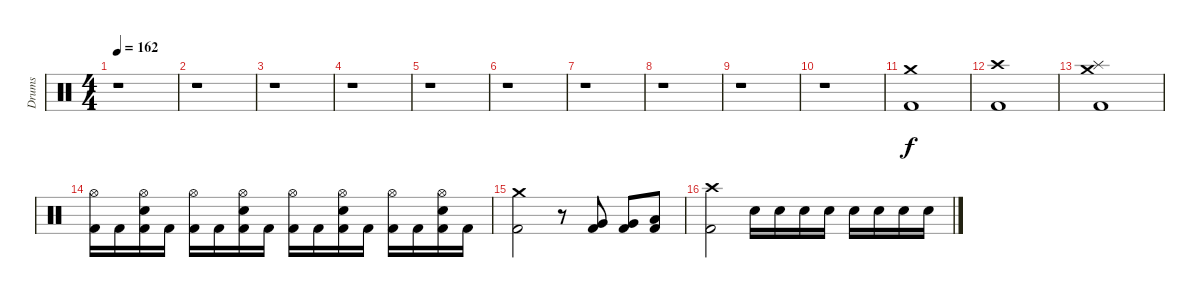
\track ("Drums" "Drums") {instrument percussion}
\staff {score}
\articulation defaults
\ts (4 4)
\tempo 162
\clef neutral
\ks c
r.1{dy f} |
r.1 |
r.1 |
r.1 |
r.1 |
r.1 |
r.1 |
r.1 |
r.1 |
r.1 |
\section ("" "")
("Kick (hit) 2" "Crash medium (hit)").1 |
("Kick (hit) 2" "Crash high (hit)").1 |
("Kick (hit) 2" "Crash medium (hit)" "Splash (hit)").1 |
("Kick (hit) 2" "Hi-Hat (open)").16 "Kick (hit) 2".16 ("Kick (hit) 2" "Snare (hit) 2" "Hi-Hat (open)").16 "Kick (hit) 2".16 ("Kick (hit) 2" "Hi-Hat (open)").16 "Kick (hit) 2".16 ("Kick (hit) 2" "Snare (hit) 2" "Hi-Hat (open)").16 "Kick (hit) 2".16 ("Kick (hit) 2" "Hi-Hat (open)").16 "Kick (hit) 2".16 ("Kick (hit) 2" "Snare (hit) 2" "Hi-Hat (open)").16 "Kick (hit) 2".16 ("Kick (hit) 2" "Hi-Hat (open)").16 "Kick (hit) 2".16 ("Kick (hit) 2" "Snare (hit) 2" "Hi-Hat (open)").16 "Kick (hit) 2".16 |
\section ("" "")
("Kick (hit) 2" "Crash medium (hit)").2 r.8 ("Kick (hit) 2" "Very Low Tom (hit)").8 ("Kick (hit) 2" "Very Low Tom (hit)").8 ("Kick (hit) 2" "Low Floor Tom (hit)").8 |
("Kick (hit) 2" "Crash high (hit)").2 "Snare (hit) 2".16 "Snare (hit) 2".16 "Snare (hit) 2".16 "Snare (hit) 2".16 "Snare (hit) 2".16 "Snare (hit) 2".16 "Snare (hit) 2".16 "Snare (hit) 2".16
